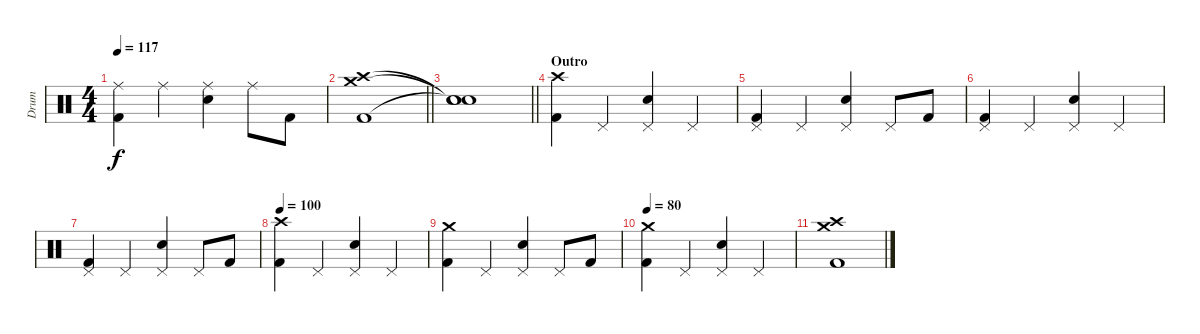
\track ("Drum" "Drum") {instrument percussion}
\staff {score}
\articulation defaults
\ts (4 4)
\tempo 117
\clef neutral
\ks c
("Ride (middle)" "Kick (hit) 2").4{dy f} "Ride (middle)".4 ("Ride (middle)" "Electric Snare (hit)").4 "Ride (middle)".8 "Kick (hit) 2".8 |
\barLineRight lightlight
("Crash high (hit)" "Crash medium (hit)" "Kick (hit) 2").1 |
\barLineRight lightlight
("Snare (hit)"{t} "Snare (hit)"{t} "Snare (hit)"{t}).1 |
\section ("" "Outro")
("Crash high (hit)" "Kick (hit) 2").4 "Pedal Hi-Hat (hit)".4 ("Pedal Hi-Hat (hit)" "Electric Snare (hit)").4 "Pedal Hi-Hat (hit)".4 |
("Pedal Hi-Hat (hit)" "Kick (hit) 2").4 "Pedal Hi-Hat (hit)".4 ("Pedal Hi-Hat (hit)" "Electric Snare (hit)").4 "Pedal Hi-Hat (hit)".8 "Kick (hit) 2".8 |
("Pedal Hi-Hat (hit)" "Kick (hit) 2").4 "Pedal Hi-Hat (hit)".4 ("Pedal Hi-Hat (hit)" "Electric Snare (hit)").4 "Pedal Hi-Hat (hit)".4 |
("Pedal Hi-Hat (hit)" "Kick (hit) 2").4 "Pedal Hi-Hat (hit)".4 ("Pedal Hi-Hat (hit)" "Electric Snare (hit)").4 "Pedal Hi-Hat (hit)".8 "Kick (hit) 2".8 |
\tempo 100
("Crash high (hit)" "Kick (hit) 2").4 "Pedal Hi-Hat (hit)".4 ("Pedal Hi-Hat (hit)" "Electric Snare (hit)").4 "Pedal Hi-Hat (hit)".4 |
("Crash medium (hit)" "Kick (hit) 2").4 "Pedal Hi-Hat (hit)".4 ("Pedal Hi-Hat (hit)" "Electric Snare (hit)").4 "Pedal Hi-Hat (hit)".8 "Kick (hit) 2".8 |
\tempo 80
("Crash medium (hit)" "Kick (hit) 2").4 "Pedal Hi-Hat (hit)".4 ("Pedal Hi-Hat (hit)" "Electric Snare (hit)").4 "Pedal Hi-Hat (hit)".4 |
("Crash medium (hit)" "Crash high (hit)" "Kick (hit) 2").1
